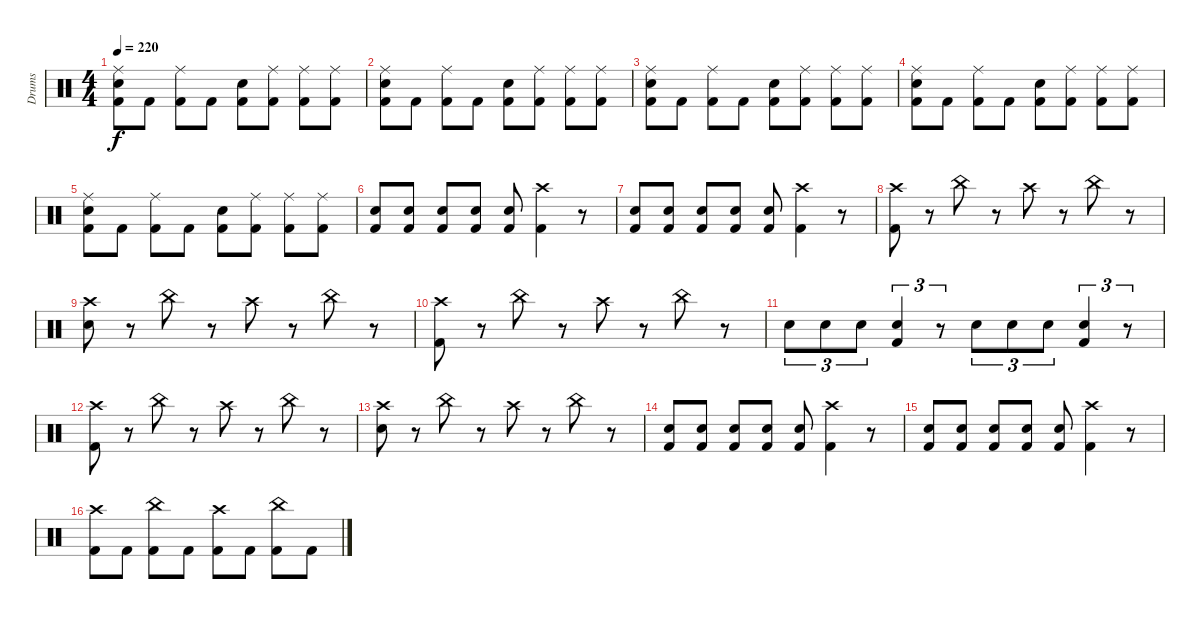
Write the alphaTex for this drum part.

\track ("Drums" "Drums") {instrument percussion}
\staff {score}
\articulation defaults
\ts (4 4)
\tempo 220
\clef neutral
\ks c
("Ride (middle)" "Snare (hit) 2" "Kick (hit) 2").8{dy f} "Kick (hit) 2".8 ("Ride (middle)" "Kick (hit) 2").8 "Kick (hit) 2".8 ("Snare (hit) 2" "Kick (hit) 2").8 ("Ride (middle)" "Kick (hit) 2").8 ("Ride (middle)" "Kick (hit) 2").8 ("Ride (middle)" "Kick (hit) 2").8 |
("Ride (middle)" "Snare (hit) 2" "Kick (hit) 2").8 "Kick (hit) 2".8 ("Ride (middle)" "Kick (hit) 2").8 "Kick (hit) 2".8 ("Snare (hit) 2" "Kick (hit) 2").8 ("Ride (middle)" "Kick (hit) 2").8 ("Ride (middle)" "Kick (hit) 2").8 ("Ride (middle)" "Kick (hit) 2").8 |
("Ride (middle)" "Snare (hit) 2" "Kick (hit) 2").8 "Kick (hit) 2".8 ("Ride (middle)" "Kick (hit) 2").8 "Kick (hit) 2".8 ("Snare (hit) 2" "Kick (hit) 2").8 ("Ride (middle)" "Kick (hit) 2").8 ("Ride (middle)" "Kick (hit) 2").8 ("Ride (middle)" "Kick (hit) 2").8 |
("Ride (middle)" "Snare (hit) 2" "Kick (hit) 2").8 "Kick (hit) 2".8 ("Ride (middle)" "Kick (hit) 2").8 "Kick (hit) 2".8 ("Snare (hit) 2" "Kick (hit) 2").8 ("Ride (middle)" "Kick (hit) 2").8 ("Ride (middle)" "Kick (hit) 2").8 ("Ride (middle)" "Kick (hit) 2").8 |
("Ride (middle)" "Snare (hit) 2" "Kick (hit) 2").8 "Kick (hit) 2".8 ("Ride (middle)" "Kick (hit) 2").8 "Kick (hit) 2".8 ("Snare (hit) 2" "Kick (hit) 2").8 ("Ride (middle)" "Kick (hit) 2").8 ("Ride (middle)" "Kick (hit) 2").8 ("Ride (middle)" "Kick (hit) 2").8 |
("Snare (hit) 2" "Kick (hit) 2").8 ("Snare (hit) 2" "Kick (hit) 2").8 ("Snare (hit) 2" "Kick (hit) 2").8 ("Snare (hit) 2" "Kick (hit) 2").8 ("Snare (hit) 2" "Kick (hit) 2").8 ("Crash high (hit)" "Kick (hit) 2").4 r.8 |
("Snare (hit) 2" "Kick (hit) 2").8 ("Snare (hit) 2" "Kick (hit) 2").8 ("Snare (hit) 2" "Kick (hit) 2").8 ("Snare (hit) 2" "Kick (hit) 2").8 ("Snare (hit) 2" "Kick (hit) 2").8 ("Crash high (hit)" "Kick (hit) 2").4 r.8 |
("Crash high (hit)" "Kick (hit) 2").8 r.8 "China (hit)".8 r.8 "Crash high (hit)".8 r.8 "China (hit)".8 r.8 |
("Crash high (hit)" "Snare (hit) 2").8 r.8 "China (hit)".8 r.8 "Crash high (hit)".8 r.8 "China (hit)".8 r.8 |
("Crash high (hit)" "Kick (hit) 2").8 r.8 "China (hit)".8 r.8 "Crash high (hit)".8 r.8 "China (hit)".8 r.8 |
"Snare (hit) 2".8{tu (3 2)} "Snare (hit) 2".8{tu (3 2)} "Snare (hit) 2".8{tu (3 2)} ("Snare (hit) 2" "Kick (hit) 2").4{tu (3 2)} r.8{tu (3 2)} "Snare (hit) 2".8{tu (3 2)} "Snare (hit) 2".8{tu (3 2)} "Snare (hit) 2".8{tu (3 2)} ("Snare (hit) 2" "Kick (hit) 2").4{tu (3 2)} r.8{tu (3 2)} |
("Crash high (hit)" "Kick (hit) 2").8 r.8 "China (hit)".8 r.8 "Crash high (hit)".8 r.8 "China (hit)".8 r.8 |
("Crash high (hit)" "Snare (hit) 2").8 r.8 "China (hit)".8 r.8 "Crash high (hit)".8 r.8 "China (hit)".8 r.8 |
("Snare (hit) 2" "Kick (hit) 2").8 ("Snare (hit) 2" "Kick (hit) 2").8 ("Snare (hit) 2" "Kick (hit) 2").8 ("Snare (hit) 2" "Kick (hit) 2").8 ("Snare (hit) 2" "Kick (hit) 2").8 ("Crash high (hit)" "Kick (hit) 2").4 r.8 |
("Snare (hit) 2" "Kick (hit) 2").8 ("Snare (hit) 2" "Kick (hit) 2").8 ("Snare (hit) 2" "Kick (hit) 2").8 ("Snare (hit) 2" "Kick (hit) 2").8 ("Snare (hit) 2" "Kick (hit) 2").8 ("Crash high (hit)" "Kick (hit) 2").4 r.8 |
("Crash high (hit)" "Kick (hit) 2").8 "Kick (hit) 2".8 ("China (hit)" "Kick (hit) 2").8 "Kick (hit) 2".8 ("Crash high (hit)" "Kick (hit) 2").8 "Kick (hit) 2".8 ("China (hit)" "Kick (hit) 2").8 "Kick (hit) 2".8
